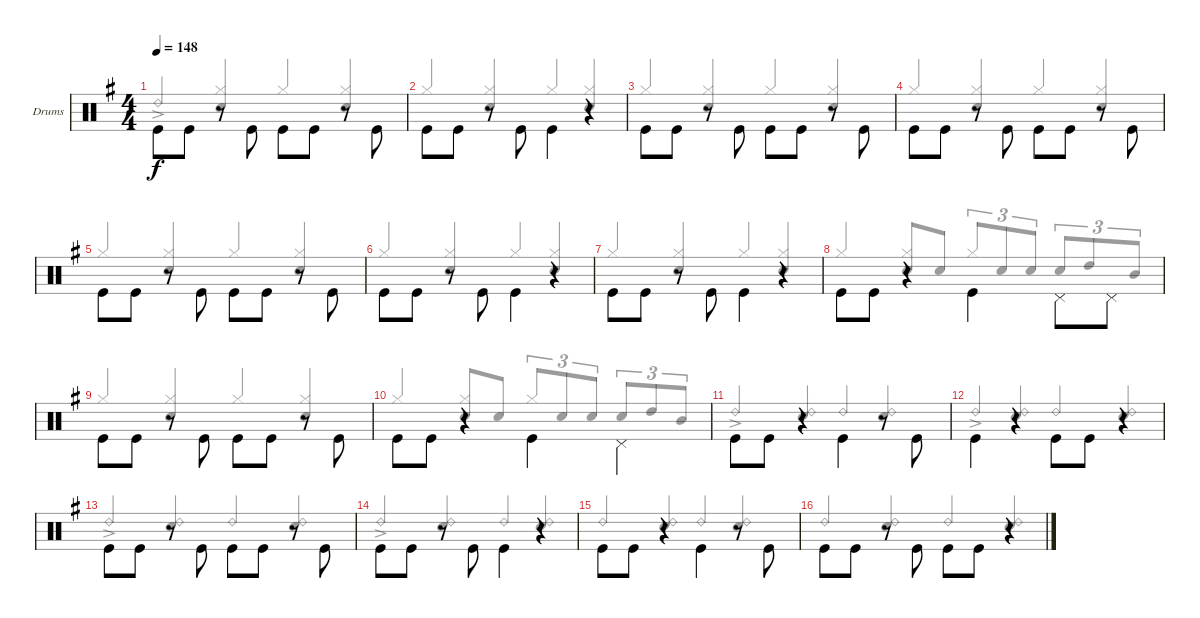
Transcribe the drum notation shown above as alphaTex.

\bracketExtendMode groupsimilarinstruments
\firstSystemTrackNameOrientation horizontal
\otherSystemsTrackNameOrientation horizontal
\track ("Drumkit" "Drums") {instrument percussion}
\staff {score}
\articulation defaults
\voice
\ts (4 4)
\tempo 148
\clef neutral
\scale
1.04288
\ks g "Kick (hit)".8{dy f beam invert} "Kick (hit)".8
r.8{beam invert} "Kick (hit)".8{beam invert} "Kick (hit)".8{beam invert} "Kick (hit)".8 r.8{beam invert} "Kick (hit)".8{beam invert} |
\scale
0.957125 "Kick (hit)".8{beam invert} "Kick (hit)".8 r.8{beam invert} "Kick (hit)".8{beam invert} "Kick (hit)".4{beam invert} r.4 |
\scale
1.04288 "Kick (hit)".8{beam invert} "Kick (hit)".8 r.8{beam invert} "Kick (hit)".8{beam invert} "Kick (hit)".8{beam invert} "Kick (hit)".8 r.8{beam invert} "Kick (hit)".8{beam invert} |
\scale
0.957125 "Kick (hit)".8{beam invert} "Kick (hit)".8 r.8{beam invert} "Kick (hit)".8{beam invert} "Kick (hit)".8{beam invert} "Kick (hit)".8 r.8{beam invert} "Kick (hit)".8{beam invert} |
\scale
1.04288 "Kick (hit)".8{beam invert} "Kick (hit)".8 r.8{beam invert} "Kick (hit)".8{beam invert} "Kick (hit)".8{beam invert} "Kick (hit)".8 r.8{beam invert} "Kick (hit)".8{beam invert} |
\scale
0.957125 "Kick (hit)".8{beam invert} "Kick (hit)".8 r.8{beam invert} "Kick (hit)".8{beam invert} "Kick (hit)".4{beam invert} r.4 |
\scale
1.04288 "Kick (hit)".8{beam invert} "Kick (hit)".8 r.8{beam invert} "Kick (hit)".8{beam invert} "Kick (hit)".4{beam invert} r.4 |
\scale
0.957125 "Kick (hit)".8{beam invert} "Kick (hit)".8 r.4{beam invert} "Kick (hit)".4{beam invert} "Pedal Hi-Hat (hit)".8{beam invert} "Pedal Hi-Hat (hit)".8 |
\scale
1.04288 "Kick (hit)".8{beam invert} "Kick (hit)".8 r.8{beam invert} "Kick (hit)".8{beam invert} "Kick (hit)".8{beam invert} "Kick (hit)".8 r.8{beam invert} "Kick (hit)".8{beam invert} |
\scale
0.957125 "Kick (hit)".8{beam invert} "Kick (hit)".8 r.4{beam invert} "Kick (hit)".4{beam invert} "Pedal Hi-Hat (hit)".4{beam invert} |
\scale
1.04288 "Kick (hit)".8{beam invert} "Kick (hit)".8 r.4{beam invert} "Kick (hit)".4{beam invert} r.8{beam invert} "Kick (hit)".8{beam invert} |
\scale
0.957125 "Kick (hit)".4{beam invert} r.4{beam invert} "Kick (hit)".8{beam invert} "Kick (hit)".8 r.4 |
\scale
1.04288 "Kick (hit)".8{beam invert} "Kick (hit)".8 r.8{beam invert} "Kick (hit)".8{beam invert} "Kick (hit)".8{beam invert} "Kick (hit)".8 r.8{beam invert} "Kick (hit)".8{beam invert} |
\scale
0.957125 "Kick (hit)".8{beam invert} "Kick (hit)".8 r.8{beam invert} "Kick (hit)".8{beam invert} "Kick (hit)".4{beam invert} r.4 |
\scale
1.04288 "Kick (hit)".8{beam invert} "Kick (hit)".8 r.4{beam invert} "Kick (hit)".4{beam invert} r.8{beam invert} "Kick (hit)".8{beam invert} |
\scale
0.957125 "Kick (hit)".8{beam invert} "Kick (hit)".8 r.8{beam invert} "Kick (hit)".8{beam invert} "Kick (hit)".8{beam invert} "Kick (hit)".8 r.4{beam invert}
\voice
\clef neutral
\ottava regular
\simile none
\scale
1.04288
\ks g "Ride (bell) 2"{ac}.4{dy f beam invert}
("Hi-Hat (closed)" "Snare (hit) 2").4{beam invert} "Hi-Hat (closed)".4{beam invert} ("Hi-Hat (closed)" "Snare (hit) 2").4{beam invert} |
\scale
0.957125 "Hi-Hat (closed)".4{beam invert} ("Hi-Hat (closed)" "Snare (hit) 2").4{beam invert} "Hi-Hat (closed)".4{beam invert} ("Hi-Hat (closed)" "Snare (hit) 2").4{beam invert} |
\scale
1.04288 "Hi-Hat (closed)".4{beam invert} ("Hi-Hat (closed)" "Snare (hit) 2").4{beam invert} "Hi-Hat (closed)".4{beam invert} ("Hi-Hat (closed)" "Snare (hit) 2").4{beam invert} |
\scale
0.957125 "Hi-Hat (closed)".4{beam invert} ("Hi-Hat (closed)" "Snare (hit) 2").4{beam invert} "Hi-Hat (closed)".4{beam invert} ("Hi-Hat (closed)" "Snare (hit) 2").4{beam invert} |
\scale
1.04288 "Hi-Hat (closed)".4{beam invert} ("Hi-Hat (closed)" "Snare (hit) 2").4{beam invert} "Hi-Hat (closed)".4{beam invert} ("Hi-Hat (closed)" "Snare (hit) 2").4{beam invert} |
\scale
0.957125 "Hi-Hat (closed)".4{beam invert} ("Hi-Hat (closed)" "Snare (hit) 2").4{beam invert} "Hi-Hat (closed)".4{beam invert} ("Hi-Hat (closed)" "Snare (hit) 2").4{beam invert} |
\scale
1.04288 "Hi-Hat (closed)".4{beam invert} ("Hi-Hat (closed)" "Snare (hit) 2").4{beam invert} "Hi-Hat (closed)".4{beam invert} ("Hi-Hat (closed)" "Snare (hit) 2").4{beam invert} |
\scale
0.957125 "Hi-Hat (closed)".4{beam invert} ("Hi-Hat (closed)" "Snare (hit) 2").8{beam invert} "Snare (hit) 2".8 "Hi-Hat (closed)".8{tu (3 2) beam invert} "Snare (hit) 2".8{tu (3 2)} "Snare (hit) 2".8{tu (3 2)} "Snare (hit) 2".8{tu (3 2) beam invert} "High Tom (hit)".8{tu (3 2)} "Mid Tom (hit)".8{tu (3 2)} |
\scale
1.04288 "Hi-Hat (closed)".4{beam invert} ("Hi-Hat (closed)" "Snare (hit) 2").4{beam invert} "Hi-Hat (closed)".4{beam invert} ("Hi-Hat (closed)" "Snare (hit) 2").4{beam invert} |
\scale
0.957125 "Hi-Hat (closed)".4{beam invert} ("Hi-Hat (closed)" "Snare (hit) 2").8{beam invert} "Snare (hit) 2".8 "Hi-Hat (closed)".8{tu (3 2) beam invert} "Snare (hit) 2".8{tu (3 2)} "Snare (hit) 2".8{tu (3 2)} "Snare (hit) 2".8{tu (3 2) beam invert} "High Tom (hit)".8{tu (3 2)} "Mid Tom (hit)".8{tu (3 2)} |
\scale
1.04288 "Ride (bell) 2"{ac}.4{beam invert} ("Snare (hit) 2" "Ride (bell) 2").4{beam invert} "Ride (bell) 2".4{beam invert} ("Snare (hit) 2" "Ride (bell) 2").4{beam invert} |
\scale
0.957125 "Ride (bell) 2"{ac}.4{beam invert} ("Snare (hit) 2" "Ride (bell) 2").4{beam invert} "Ride (bell) 2".4{beam invert} ("Snare (hit) 2" "Ride (bell) 2").4{beam invert} |
\scale
1.04288 "Ride (bell) 2"{ac}.4{beam invert} ("Snare (hit) 2" "Ride (bell) 2").4{beam invert} "Ride (bell) 2".4{beam invert} ("Snare (hit) 2" "Ride (bell) 2").4{beam invert} |
\scale
0.957125 "Ride (bell) 2"{ac}.4{beam invert} ("Snare (hit) 2" "Ride (bell) 2").4{beam invert} "Ride (bell) 2".4{beam invert} ("Snare (hit) 2" "Ride (bell) 2").4{beam invert} |
\scale
1.04288 "Ride (bell) 2".4{beam invert} ("Snare (hit) 2" "Ride (bell) 2").4{beam invert} "Ride (bell) 2".4{beam invert} ("Snare (hit) 2" "Ride (bell) 2").4{beam invert} |
\scale
0.957125 "Ride (bell) 2".4{beam invert} ("Snare (hit) 2" "Ride (bell) 2").4{beam invert} "Ride (bell) 2".4{beam invert} ("Snare (hit) 2" "Ride (bell) 2").4{beam invert}
